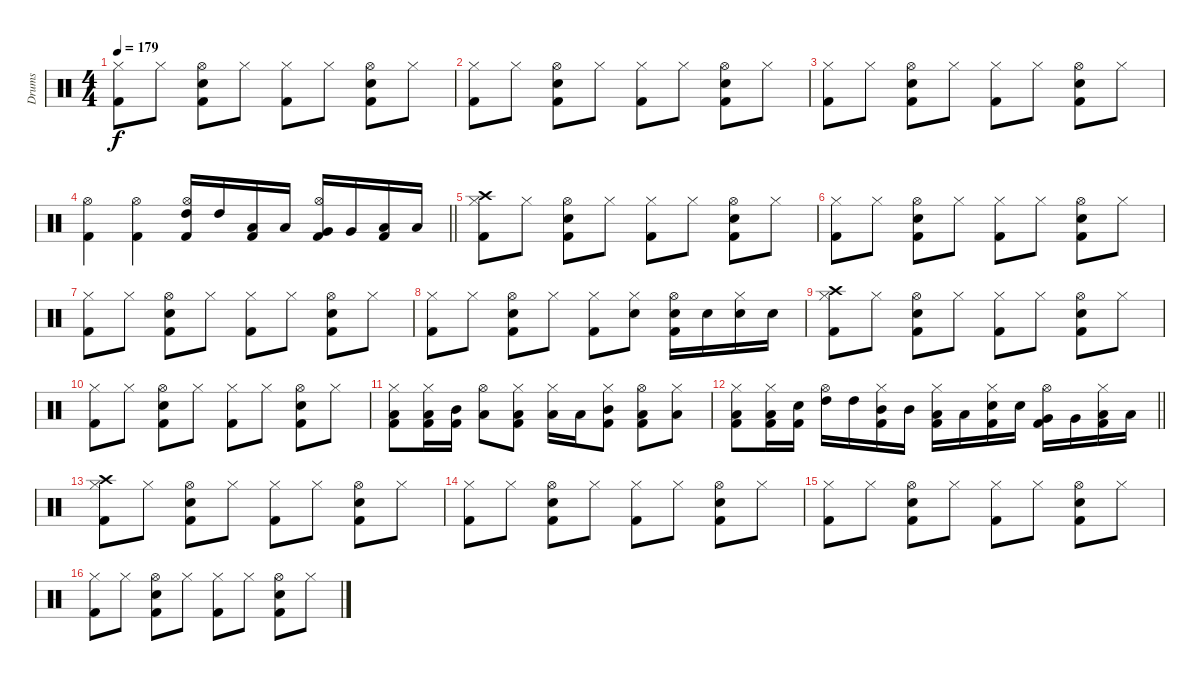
\track ("Drums" "Drums") {instrument percussion}
\staff {score}
\articulation defaults
\ts (4 4)
\tempo 179
\clef neutral
\ks c
("Hi-Hat (closed)" "Kick (hit) 2").8{dy f} "Hi-Hat (closed)".8 ("Hi-Hat (open)" "Snare (hit) 2" "Kick (hit) 2").8 "Hi-Hat (closed)".8 ("Hi-Hat (closed)" "Kick (hit) 2").8 "Hi-Hat (closed)".8 ("Hi-Hat (open)" "Snare (hit) 2" "Kick (hit) 2").8 "Hi-Hat (closed)".8 |
("Hi-Hat (closed)" "Kick (hit) 2").8 "Hi-Hat (closed)".8 ("Hi-Hat (open)" "Snare (hit) 2" "Kick (hit) 2").8 "Hi-Hat (closed)".8 ("Hi-Hat (closed)" "Kick (hit) 2").8 "Hi-Hat (closed)".8 ("Hi-Hat (open)" "Snare (hit) 2" "Kick (hit) 2").8 "Hi-Hat (closed)".8 |
("Hi-Hat (closed)" "Kick (hit) 2").8 "Hi-Hat (closed)".8 ("Hi-Hat (open)" "Snare (hit) 2" "Kick (hit) 2").8 "Hi-Hat (closed)".8 ("Hi-Hat (closed)" "Kick (hit) 2").8 "Hi-Hat (closed)".8 ("Hi-Hat (open)" "Snare (hit) 2" "Kick (hit) 2").8 "Hi-Hat (closed)".8 |
\barLineRight lightlight
("Hi-Hat (open)" "Kick (hit) 2").4 ("Hi-Hat (open)" "Kick (hit) 2").4 ("Hi-Hat (open)" "High Tom (hit)" "Kick (hit) 2").16 "High Tom (hit)".16 ("Low Tom (hit)" "Kick (hit) 2").16 "Low Tom (hit)".16 ("Hi-Hat (open)" "Very Low Tom (hit)" "Kick (hit) 2").16 "Very Low Tom (hit)".16 ("Low Floor Tom (hit)" "Kick (hit) 2").16 "Low Floor Tom (hit)".16 |
("Hi-Hat (closed)" "Crash high (hit)" "Kick (hit) 2").8 "Hi-Hat (closed)".8 ("Hi-Hat (open)" "Snare (hit) 2" "Kick (hit) 2").8 "Hi-Hat (closed)".8 ("Hi-Hat (closed)" "Kick (hit) 2").8 "Hi-Hat (closed)".8 ("Hi-Hat (open)" "Snare (hit) 2" "Kick (hit) 2").8 "Hi-Hat (closed)".8 |
("Hi-Hat (closed)" "Kick (hit) 2").8 "Hi-Hat (closed)".8 ("Hi-Hat (open)" "Snare (hit) 2" "Kick (hit) 2").8 "Hi-Hat (closed)".8 ("Hi-Hat (closed)" "Kick (hit) 2").8 "Hi-Hat (closed)".8 ("Hi-Hat (open)" "Snare (hit) 2" "Kick (hit) 2").8 "Hi-Hat (closed)".8 |
("Hi-Hat (closed)" "Kick (hit) 2").8 "Hi-Hat (closed)".8 ("Hi-Hat (open)" "Snare (hit) 2" "Kick (hit) 2").8 "Hi-Hat (closed)".8 ("Hi-Hat (closed)" "Kick (hit) 2").8 "Hi-Hat (closed)".8 ("Hi-Hat (open)" "Snare (hit) 2" "Kick (hit) 2").8 "Hi-Hat (closed)".8 |
("Hi-Hat (closed)" "Kick (hit) 2").8 "Hi-Hat (closed)".8 ("Hi-Hat (open)" "Snare (hit) 2" "Kick (hit) 2").8 "Hi-Hat (closed)".8 ("Hi-Hat (closed)" "Kick (hit) 2").8 ("Hi-Hat (closed)" "Snare (hit) 2").8 ("Hi-Hat (open)" "Snare (hit) 2" "Kick (hit) 2").16 "Snare (hit) 2".16 ("Hi-Hat (closed)" "Snare (hit) 2").16 "Snare (hit) 2".16 |
("Hi-Hat (closed)" "Crash high (hit)" "Kick (hit) 2").8 "Hi-Hat (closed)".8 ("Hi-Hat (open)" "Snare (hit) 2" "Kick (hit) 2").8 "Hi-Hat (closed)".8 ("Hi-Hat (closed)" "Kick (hit) 2").8 "Hi-Hat (closed)".8 ("Hi-Hat (open)" "Snare (hit) 2" "Kick (hit) 2").8 "Hi-Hat (closed)".8 |
("Hi-Hat (closed)" "Kick (hit) 2").8 "Hi-Hat (closed)".8 ("Hi-Hat (open)" "Snare (hit) 2" "Kick (hit) 2").8 "Hi-Hat (closed)".8 ("Hi-Hat (closed)" "Kick (hit) 2").8 "Hi-Hat (closed)".8 ("Hi-Hat (open)" "Snare (hit) 2" "Kick (hit) 2").8 "Hi-Hat (closed)".8 |
("Hi-Hat (closed)" "Low Tom (hit)" "Kick (hit) 2").8 ("Hi-Hat (closed)" "Low Tom (hit)" "Kick (hit) 2").16 ("Mid Tom (hit)" "Kick (hit) 2").16 ("Hi-Hat (open)" "Low Tom (hit)").8 ("Hi-Hat (closed)" "Low Tom (hit)" "Kick (hit) 2").8 ("Hi-Hat (closed)" "Low Tom (hit)").16 "Low Tom (hit)".16 ("Hi-Hat (closed)" "Mid Tom (hit)" "Kick (hit) 2").8 ("Hi-Hat (open)" "Low Tom (hit)" "Kick (hit) 2").8 ("Hi-Hat (closed)" "Low Tom (hit)").8 |
\barLineRight lightlight
("Hi-Hat (closed)" "Low Tom (hit)" "Kick (hit) 2").8 ("Hi-Hat (closed)" "Low Tom (hit)" "Kick (hit) 2").16 ("Snare (hit) 2" "Kick (hit) 2").16 ("Hi-Hat (open)" "High Tom (hit)").16 "High Tom (hit)".16 ("Hi-Hat (closed)" "Mid Tom (hit)" "Kick (hit) 2").16 "Mid Tom (hit)".16 ("Hi-Hat (closed)" "Low Tom (hit)" "Kick (hit) 2").16 "Low Tom (hit)".16 ("Hi-Hat (closed)" "Snare (hit) 2" "Kick (hit) 2").16 "Snare (hit) 2".16 ("Hi-Hat (open)" "Very Low Tom (hit)" "Kick (hit) 2").16 "Very Low Tom (hit)".16 ("Hi-Hat (closed)" "Low Floor Tom (hit)" "Kick (hit) 2").16 "Low Floor Tom (hit)".16 |
("Hi-Hat (closed)" "Crash high (hit)" "Kick (hit) 2").8 "Hi-Hat (closed)".8 ("Hi-Hat (open)" "Snare (hit) 2" "Kick (hit) 2").8 "Hi-Hat (closed)".8 ("Hi-Hat (closed)" "Kick (hit) 2").8 "Hi-Hat (closed)".8 ("Hi-Hat (open)" "Snare (hit) 2" "Kick (hit) 2").8 "Hi-Hat (closed)".8 |
("Hi-Hat (closed)" "Kick (hit) 2").8 "Hi-Hat (closed)".8 ("Hi-Hat (open)" "Snare (hit) 2" "Kick (hit) 2").8 "Hi-Hat (closed)".8 ("Hi-Hat (closed)" "Kick (hit) 2").8 "Hi-Hat (closed)".8 ("Hi-Hat (open)" "Snare (hit) 2" "Kick (hit) 2").8 "Hi-Hat (closed)".8 |
("Hi-Hat (closed)" "Kick (hit) 2").8 "Hi-Hat (closed)".8 ("Hi-Hat (open)" "Snare (hit) 2" "Kick (hit) 2").8 "Hi-Hat (closed)".8 ("Hi-Hat (closed)" "Kick (hit) 2").8 "Hi-Hat (closed)".8 ("Hi-Hat (open)" "Snare (hit) 2" "Kick (hit) 2").8 "Hi-Hat (closed)".8 |
("Hi-Hat (closed)" "Kick (hit) 2").8 "Hi-Hat (closed)".8 ("Hi-Hat (open)" "Snare (hit) 2" "Kick (hit) 2").8 "Hi-Hat (closed)".8 ("Hi-Hat (closed)" "Kick (hit) 2").8 "Hi-Hat (closed)".8 ("Hi-Hat (open)" "Snare (hit) 2" "Kick (hit) 2").8 "Hi-Hat (closed)".8
